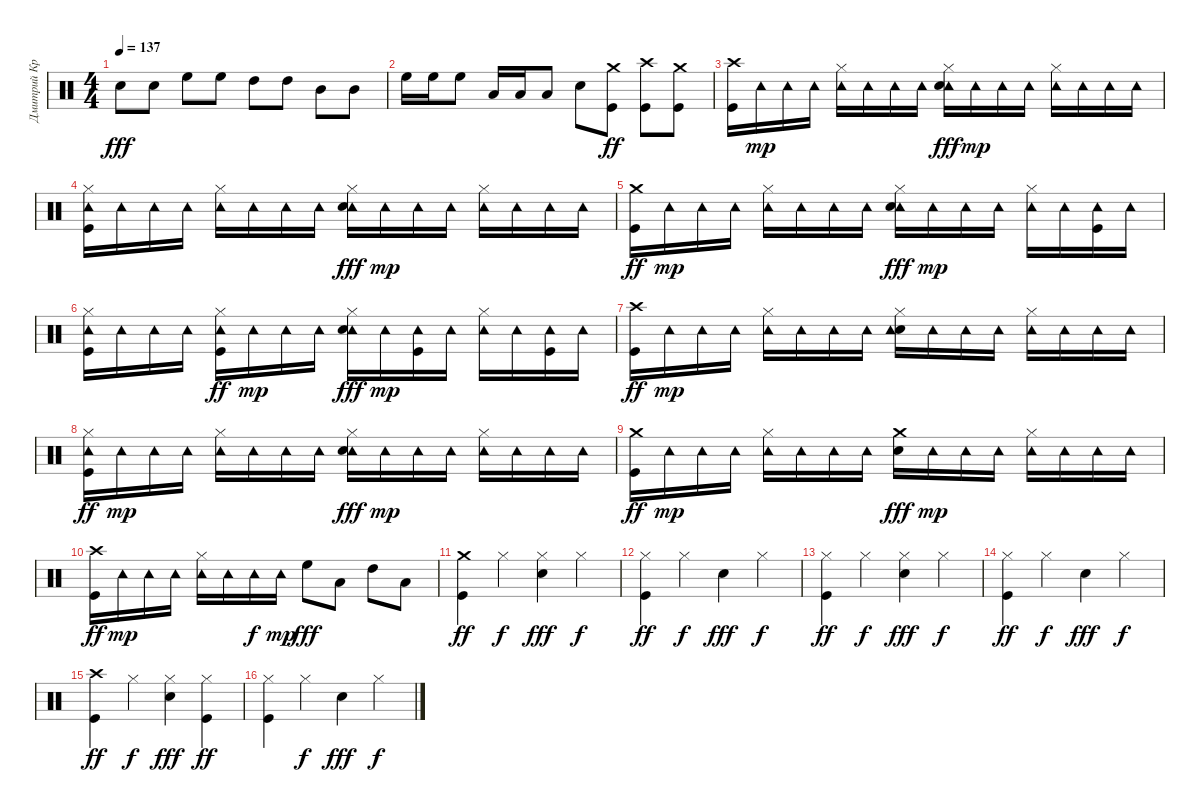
\track ("Дмитрий Кревенков" "Дмитрий Кр") {instrument percussion}
\staff {score}
\articulation defaults
\ts (4 4)
\tempo 137
\clef neutral
\ks c "Snare (hit) 2".8{dy fff} "Snare (hit) 2".8 "High Floor Tom (hit)".8 "High Floor Tom (hit)".8 "High Tom (hit)".8 "High Tom (hit)".8 "Mid Tom (hit)".8 "Mid Tom (hit)".8
|
"High Floor Tom (hit)".16 "High Floor Tom (hit)".16 "High Floor Tom (hit)".8 "Low Tom (hit)".16 "Low Tom (hit)".16 "Low Tom (hit)".8 "Snare (hit) 2".8 ("Crash medium (hit)" "Kick (hit)").8{dy ff} ("Kick (hit)" "Crash high (hit)").8 ("Kick (hit)" "Crash medium (hit)").8 |
("Kick (hit)" "Crash high (hit)").16 "Tambourine (hit)".16{dy mp} "Tambourine (hit)".16 "Tambourine (hit)".16 ("Tambourine (hit)" "Hi-Hat (closed)").16 "Tambourine (hit)".16 "Tambourine (hit)".16 "Tambourine (hit)".16 ("Tambourine (hit)" "Snare (hit) 2" "Hi-Hat (closed)").16{dy fff} "Tambourine (hit)".16{dy mp} "Tambourine (hit)".16 "Tambourine (hit)".16 ("Tambourine (hit)" "Hi-Hat (closed)").16 "Tambourine (hit)".16 "Tambourine (hit)".16 "Tambourine (hit)".16 |
("Kick (hit)" "Tambourine (hit)" "Hi-Hat (closed)").16 "Tambourine (hit)".16 "Tambourine (hit)".16 "Tambourine (hit)".16 ("Tambourine (hit)" "Hi-Hat (closed)").16 "Tambourine (hit)".16 "Tambourine (hit)".16 "Tambourine (hit)".16 ("Tambourine (hit)" "Snare (hit) 2" "Hi-Hat (closed)").16{dy fff} "Tambourine (hit)".16{dy mp} "Tambourine (hit)".16 "Tambourine (hit)".16 ("Tambourine (hit)" "Hi-Hat (closed)").16 "Tambourine (hit)".16 "Tambourine (hit)".16 "Tambourine (hit)".16 |
("Kick (hit)" "Crash medium (hit)").16{dy ff} "Tambourine (hit)".16{dy mp} "Tambourine (hit)".16 "Tambourine (hit)".16 ("Tambourine (hit)" "Hi-Hat (closed)").16 "Tambourine (hit)".16 "Tambourine (hit)".16 "Tambourine (hit)".16 ("Tambourine (hit)" "Snare (hit) 2" "Hi-Hat (closed)").16{dy fff} "Tambourine (hit)".16{dy mp} "Tambourine (hit)".16 "Tambourine (hit)".16 ("Tambourine (hit)" "Hi-Hat (closed)").16 "Tambourine (hit)".16 ("Kick (hit)" "Tambourine (hit)").16 "Tambourine (hit)".16 |
("Kick (hit)" "Tambourine (hit)" "Hi-Hat (closed)").16 "Tambourine (hit)".16 "Tambourine (hit)".16 "Tambourine (hit)".16 ("Tambourine (hit)" "Kick (hit)" "Hi-Hat (closed)").16{dy ff} "Tambourine (hit)".16{dy mp} "Tambourine (hit)".16 "Tambourine (hit)".16 ("Tambourine (hit)" "Snare (hit) 2" "Hi-Hat (closed)").16{dy fff} "Tambourine (hit)".16{dy mp} ("Kick (hit)" "Tambourine (hit)").16 "Tambourine (hit)".16 ("Tambourine (hit)" "Hi-Hat (closed)").16 "Tambourine (hit)".16 ("Kick (hit)" "Tambourine (hit)").16 "Tambourine (hit)".16 |
("Kick (hit)" "Crash high (hit)").16{dy ff} "Tambourine (hit)".16{dy mp} "Tambourine (hit)".16 "Tambourine (hit)".16 ("Tambourine (hit)" "Hi-Hat (closed)").16 "Tambourine (hit)".16 "Tambourine (hit)".16 "Tambourine (hit)".16 ("Snare (hit) 2" "Tambourine (hit)" "Hi-Hat (closed)").16 "Tambourine (hit)".16 "Tambourine (hit)".16 "Tambourine (hit)".16 ("Tambourine (hit)" "Hi-Hat (closed)").16 "Tambourine (hit)".16 "Tambourine (hit)".16 "Tambourine (hit)".16 |
("Tambourine (hit)" "Kick (hit)" "Hi-Hat (closed)").16{dy ff} "Tambourine (hit)".16{dy mp} "Tambourine (hit)".16 "Tambourine (hit)".16 ("Tambourine (hit)" "Hi-Hat (closed)").16 "Tambourine (hit)".16 "Tambourine (hit)".16 "Tambourine (hit)".16 ("Tambourine (hit)" "Snare (hit) 2" "Hi-Hat (closed)").16{dy fff} "Tambourine (hit)".16{dy mp} "Tambourine (hit)".16 "Tambourine (hit)".16 ("Tambourine (hit)" "Hi-Hat (closed)").16 "Tambourine (hit)".16 "Tambourine (hit)".16 "Tambourine (hit)".16 |
("Kick (hit)" "Crash medium (hit)").16{dy ff} "Tambourine (hit)".16{dy mp} "Tambourine (hit)".16 "Tambourine (hit)".16 ("Hi-Hat (closed)" "Tambourine (hit)").16 "Tambourine (hit)".16 "Tambourine (hit)".16 "Tambourine (hit)".16 ("Snare (hit) 2" "Crash medium (hit)").16{dy fff} "Tambourine (hit)".16{dy mp} "Tambourine (hit)".16 "Tambourine (hit)".16 ("Tambourine (hit)" "Hi-Hat (closed)").16 "Tambourine (hit)".16 "Tambourine (hit)".16 "Tambourine (hit)".16 |
("Kick (hit)" "Crash high (hit)").16{dy ff} "Tambourine (hit)".16{dy mp} "Tambourine (hit)".16 "Tambourine (hit)".16 ("Tambourine (hit)" "Hi-Hat (closed)").16 "Tambourine (hit)".16 "Tambourine (hit)".16{dy f} "Tambourine (hit)".16{dy mp} "High Floor Tom (hit)".8{dy fff} "Low Tom (hit)".8 "High Tom (hit)".8 "Low Tom (hit)".8 |
("Crash medium (hit)" "Kick (hit)").4{dy ff} "Hi-Hat (closed)".4{dy f} ("Snare (hit) 2" "Hi-Hat (closed)").4{dy fff} "Hi-Hat (closed)".4{dy f} |
("Kick (hit)" "Hi-Hat (closed)").4{dy ff} "Hi-Hat (closed)".4{dy f} "Snare (hit) 2".4{dy fff} "Hi-Hat (closed)".4{dy f} |
("Kick (hit)" "Hi-Hat (closed)").4{dy ff} "Hi-Hat (closed)".4{dy f} ("Snare (hit) 2" "Hi-Hat (closed)").4{dy fff} "Hi-Hat (closed)".4{dy f} |
("Kick (hit)" "Hi-Hat (closed)").4{dy ff} "Hi-Hat (closed)".4{dy f} "Snare (hit) 2".4{dy fff} "Hi-Hat (closed)".4{dy f} |
("Crash high (hit)" "Kick (hit)").4{dy ff} "Hi-Hat (closed)".4{dy f} ("Snare (hit) 2" "Hi-Hat (closed)").4{dy fff} ("Kick (hit)" "Hi-Hat (closed)").4{dy ff} |
("Kick (hit)" "Hi-Hat (closed)").4 "Hi-Hat (closed)".4{dy f} "Snare (hit) 2".4{dy fff} "Hi-Hat (closed)".4{dy f}
